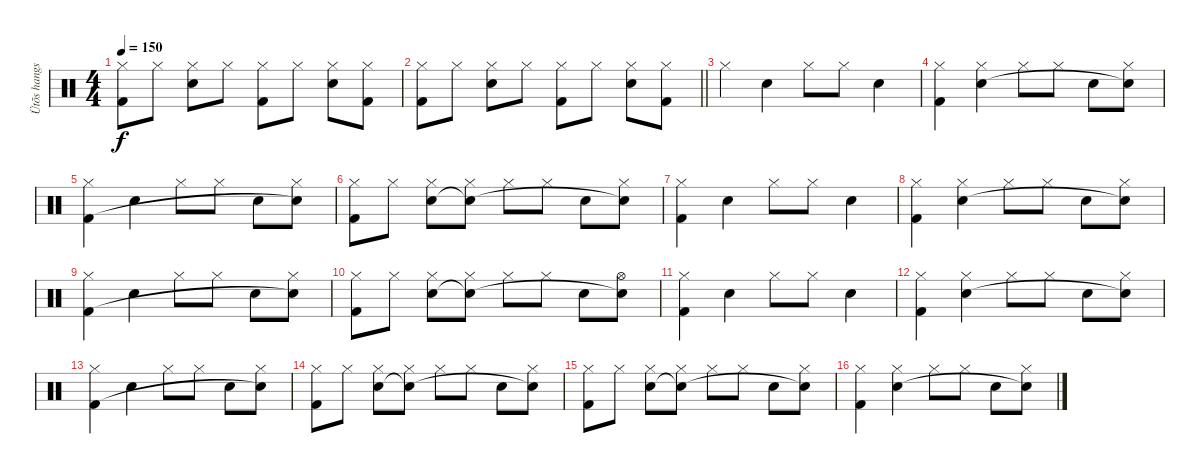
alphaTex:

\track ("Ütõs hangszer" "Ütõs hangs") {instrument percussion}
\staff {score}
\articulation defaults
\ts (4 4)
\tempo 150
\clef neutral
\ks c
("Hi-Hat (closed)" "Kick (hit) 2").8{dy f} "Hi-Hat (closed)".8 ("Hi-Hat (closed)" "Snare (hit) 2").8 "Hi-Hat (closed)".8 ("Hi-Hat (closed)" "Kick (hit) 2").8 "Hi-Hat (closed)".8 ("Hi-Hat (closed)" "Snare (hit) 2").8 ("Hi-Hat (closed)" "Kick (hit) 2").8 |
\barLineRight lightlight
("Hi-Hat (closed)" "Kick (hit) 2").8 "Hi-Hat (closed)".8 ("Hi-Hat (closed)" "Snare (hit) 2").8 "Hi-Hat (closed)".8 ("Hi-Hat (closed)" "Kick (hit) 2").8 "Hi-Hat (closed)".8 ("Hi-Hat (closed)" "Snare (hit) 2").8 ("Hi-Hat (closed)" "Kick (hit) 2").8 |
"Hi-Hat (closed)".4 "Snare (hit) 2".4 "Hi-Hat (closed)".8 "Hi-Hat (closed)".8 "Snare (hit) 2".4 |
("Hi-Hat (closed)" "Kick (hit) 2").4 ("Hi-Hat (closed)" "Snare (hit) 2").4 "Hi-Hat (closed)".8 "Hi-Hat (closed)".8 "Snare (hit) 2".8 ("Hi-Hat (closed)" "Snare (hit) 2"{t}).8 |
("Hi-Hat (closed)" "Kick (hit) 2").4 "Snare (hit) 2".4 "Hi-Hat (closed)".8 "Hi-Hat (closed)".8 "Snare (hit) 2".8 ("Hi-Hat (closed)" "Snare (hit) 2"{t}).8 |
("Hi-Hat (closed)" "Kick (hit) 2").8 "Hi-Hat (closed)".8 ("Hi-Hat (closed)" "Snare (hit) 2").8 ("Hi-Hat (closed)" "Snare (hit) 2"{t}).8 "Hi-Hat (closed)".8 "Hi-Hat (closed)".8 "Snare (hit) 2".8 ("Hi-Hat (closed)" "Snare (hit) 2"{t}).8 |
("Hi-Hat (closed)" "Kick (hit) 2").4 "Snare (hit) 2".4 "Hi-Hat (closed)".8 "Hi-Hat (closed)".8 "Snare (hit) 2".4 |
("Hi-Hat (closed)" "Kick (hit) 2").4 ("Hi-Hat (closed)" "Snare (hit) 2").4 "Hi-Hat (closed)".8 "Hi-Hat (closed)".8 "Snare (hit) 2".8 ("Hi-Hat (closed)" "Snare (hit) 2"{t}).8 |
("Hi-Hat (closed)" "Kick (hit) 2").4 "Snare (hit) 2".4 "Hi-Hat (closed)".8 "Hi-Hat (closed)".8 "Snare (hit) 2".8 ("Hi-Hat (closed)" "Snare (hit) 2"{t}).8 |
("Hi-Hat (closed)" "Kick (hit) 2").8 "Hi-Hat (closed)".8 ("Hi-Hat (closed)" "Snare (hit) 2").8 ("Hi-Hat (closed)" "Snare (hit) 2"{t}).8 "Hi-Hat (closed)".8 "Hi-Hat (closed)".8 "Snare (hit) 2".8 ("Hi-Hat (open)" "Snare (hit) 2"{t}).8 |
("Hi-Hat (closed)" "Kick (hit) 2").4 "Snare (hit) 2".4 "Hi-Hat (closed)".8 "Hi-Hat (closed)".8 "Snare (hit) 2".4 |
("Hi-Hat (closed)" "Kick (hit) 2").4 ("Hi-Hat (closed)" "Snare (hit) 2").4 "Hi-Hat (closed)".8 "Hi-Hat (closed)".8 "Snare (hit) 2".8 ("Hi-Hat (closed)" "Snare (hit) 2"{t}).8 |
("Hi-Hat (closed)" "Kick (hit) 2").4 "Snare (hit) 2".4 "Hi-Hat (closed)".8 "Hi-Hat (closed)".8 "Snare (hit) 2".8 ("Hi-Hat (closed)" "Snare (hit) 2"{t}).8 |
("Hi-Hat (closed)" "Kick (hit) 2").8 "Hi-Hat (closed)".8 ("Hi-Hat (closed)" "Snare (hit) 2").8 ("Hi-Hat (closed)" "Snare (hit) 2"{t}).8 "Hi-Hat (closed)".8 "Hi-Hat (closed)".8 "Snare (hit) 2".8 ("Hi-Hat (closed)" "Snare (hit) 2"{t}).8 |
("Hi-Hat (closed)" "Kick (hit) 2").8 "Hi-Hat (closed)".8 ("Hi-Hat (closed)" "Snare (hit) 2").8 ("Hi-Hat (closed)" "Snare (hit) 2"{t}).8 "Hi-Hat (closed)".8 "Hi-Hat (closed)".8 "Snare (hit) 2".8 ("Hi-Hat (closed)" "Snare (hit) 2"{t}).8 |
("Hi-Hat (closed)" "Kick (hit) 2").4 ("Hi-Hat (closed)" "Snare (hit) 2").4 "Hi-Hat (closed)".8 "Hi-Hat (closed)".8 "Snare (hit) 2".8 ("Hi-Hat (closed)" "Snare (hit) 2"{t}).8
